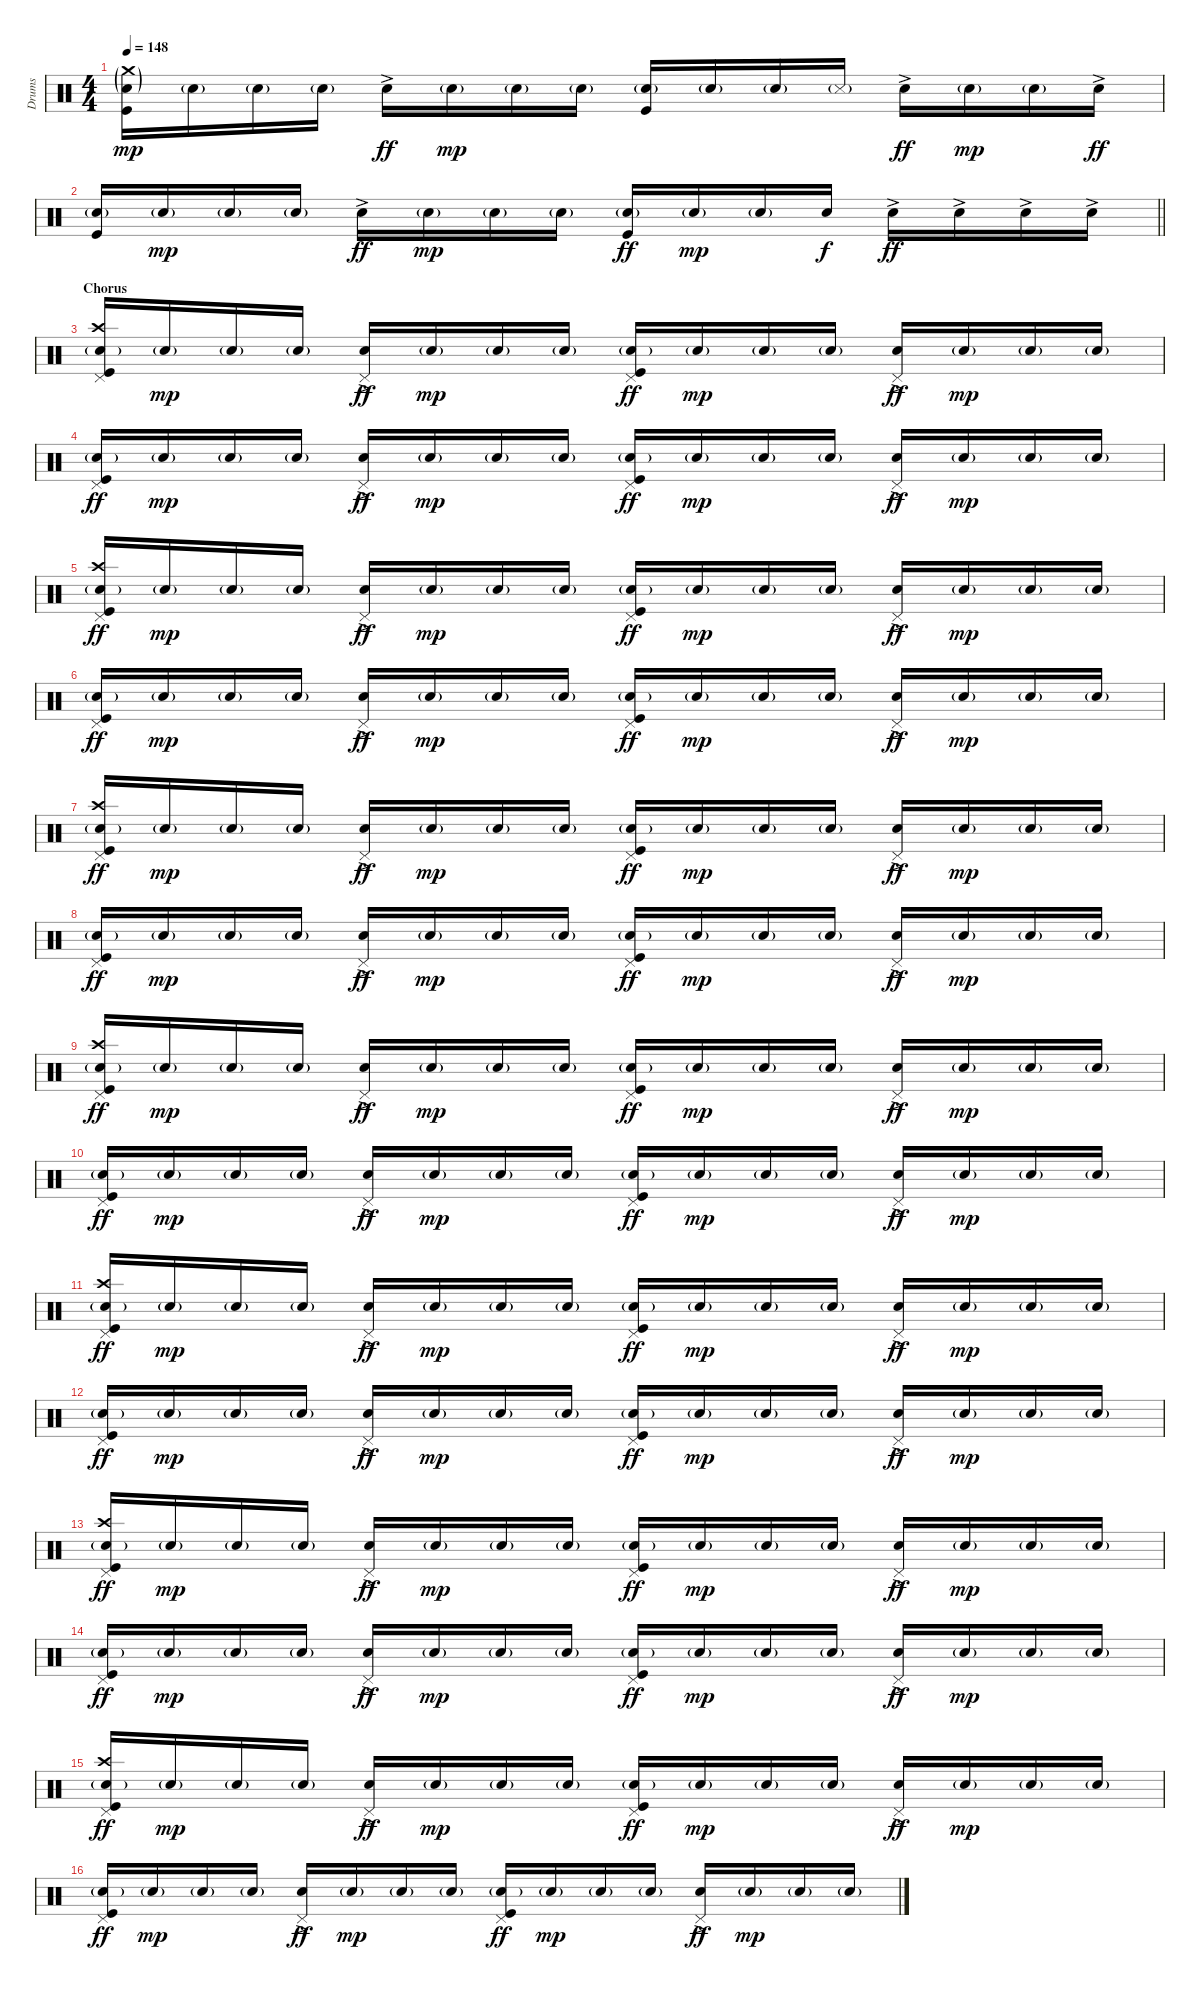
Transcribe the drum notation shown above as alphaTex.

\track ("Drums" "Drums") {instrument percussion}
\staff {score}
\articulation defaults
\ts (4 4)
\tempo 148
\clef neutral
\ks c
("Crash medium (hit)"{g} "Snare (hit) 2"{g} "Kick (hit)").16{dy mp beam Down} "Snare (hit) 2"{g}.16{beam Down} "Snare (hit) 2"{g}.16{beam Down} "Snare (hit) 2"{g}.16{beam Down} "Electric Snare (hit)"{ac}.16{dy ff} "Snare (hit) 2"{g}.16{dy mp} "Snare (hit) 2"{g}.16 "Snare (hit) 2"{g}.16 ("Snare (hit) 2"{g} "Kick (hit)").16 "Snare (hit) 2"{g}.16 "Snare (hit) 2"{g}.16 "Snare (side stick) 3"{g}.16 "Electric Snare (hit)"{ac}.16{dy ff} "Snare (hit) 2"{g}.16{dy mp} "Snare (hit) 2"{g}.16 "Electric Snare (hit)"{ac}.16{dy ff} |
\barLineRight lightlight
("Snare (hit) 2"{g} "Kick (hit)").16 "Snare (hit) 2"{g}.16{dy mp} "Snare (hit) 2"{g}.16 "Snare (hit) 2"{g}.16 "Electric Snare (hit)"{ac}.16{dy ff} "Snare (hit) 2"{g}.16{dy mp} "Snare (hit) 2"{g}.16 "Snare (hit) 2"{g}.16 ("Snare (hit) 2"{g} "Kick (hit)").16{dy ff} "Snare (hit) 2"{g}.16{dy mp} "Snare (hit) 2"{g}.16 "Electric Snare (hit)".16{dy f} "Electric Snare (hit)"{ac}.16{dy ff} "Electric Snare (hit)"{ac}.16 "Electric Snare (hit)"{ac}.16 "Electric Snare (hit)"{ac}.16 |
\section ("" "Chorus")
("Crash high (hit)" "Pedal Hi-Hat (hit)" "Snare (hit) 2"{g} "Kick (hit)").16 "Snare (hit) 2"{g}.16{dy mp} "Snare (hit) 2"{g}.16 "Snare (hit) 2"{g}.16 ("Pedal Hi-Hat (hit)" "Electric Snare (hit)"{ac}).16{dy ff} "Snare (hit) 2"{g}.16{dy mp} "Snare (hit) 2"{g}.16 "Snare (hit) 2"{g}.16 ("Pedal Hi-Hat (hit)" "Snare (hit) 2"{g} "Kick (hit)").16{dy ff} "Snare (hit) 2"{g}.16{dy mp} "Snare (hit) 2"{g}.16 "Snare (hit) 2"{g}.16 ("Pedal Hi-Hat (hit)" "Electric Snare (hit)"{ac}).16{dy ff} "Snare (hit) 2"{g}.16{dy mp} "Snare (hit) 2"{g}.16 "Snare (hit) 2"{g}.16 |
("Pedal Hi-Hat (hit)" "Snare (hit) 2"{g} "Kick (hit)").16{dy ff} "Snare (hit) 2"{g}.16{dy mp} "Snare (hit) 2"{g}.16 "Snare (hit) 2"{g}.16 ("Pedal Hi-Hat (hit)" "Electric Snare (hit)"{ac}).16{dy ff} "Snare (hit) 2"{g}.16{dy mp} "Snare (hit) 2"{g}.16 "Snare (hit) 2"{g}.16 ("Pedal Hi-Hat (hit)" "Snare (hit) 2"{g} "Kick (hit)").16{dy ff} "Snare (hit) 2"{g}.16{dy mp} "Snare (hit) 2"{g}.16 "Snare (hit) 2"{g}.16 ("Pedal Hi-Hat (hit)" "Electric Snare (hit)"{ac}).16{dy ff} "Snare (hit) 2"{g}.16{dy mp} "Snare (hit) 2"{g}.16 "Snare (hit) 2"{g}.16 |
("Crash high (hit)" "Pedal Hi-Hat (hit)" "Snare (hit) 2"{g} "Kick (hit)").16{dy ff} "Snare (hit) 2"{g}.16{dy mp} "Snare (hit) 2"{g}.16 "Snare (hit) 2"{g}.16 ("Pedal Hi-Hat (hit)" "Electric Snare (hit)"{ac}).16{dy ff} "Snare (hit) 2"{g}.16{dy mp} "Snare (hit) 2"{g}.16 "Snare (hit) 2"{g}.16 ("Pedal Hi-Hat (hit)" "Snare (hit) 2"{g} "Kick (hit)").16{dy ff} "Snare (hit) 2"{g}.16{dy mp} "Snare (hit) 2"{g}.16 "Snare (hit) 2"{g}.16 ("Pedal Hi-Hat (hit)" "Electric Snare (hit)"{ac}).16{dy ff} "Snare (hit) 2"{g}.16{dy mp} "Snare (hit) 2"{g}.16 "Snare (hit) 2"{g}.16 |
("Pedal Hi-Hat (hit)" "Snare (hit) 2"{g} "Kick (hit)").16{dy ff} "Snare (hit) 2"{g}.16{dy mp} "Snare (hit) 2"{g}.16 "Snare (hit) 2"{g}.16 ("Pedal Hi-Hat (hit)" "Electric Snare (hit)"{ac}).16{dy ff} "Snare (hit) 2"{g}.16{dy mp} "Snare (hit) 2"{g}.16 "Snare (hit) 2"{g}.16 ("Pedal Hi-Hat (hit)" "Snare (hit) 2"{g} "Kick (hit)").16{dy ff} "Snare (hit) 2"{g}.16{dy mp} "Snare (hit) 2"{g}.16 "Snare (hit) 2"{g}.16 ("Pedal Hi-Hat (hit)" "Electric Snare (hit)"{ac}).16{dy ff} "Snare (hit) 2"{g}.16{dy mp} "Snare (hit) 2"{g}.16 "Snare (hit) 2"{g}.16 |
("Crash high (hit)" "Pedal Hi-Hat (hit)" "Snare (hit) 2"{g} "Kick (hit)").16{dy ff} "Snare (hit) 2"{g}.16{dy mp} "Snare (hit) 2"{g}.16 "Snare (hit) 2"{g}.16 ("Pedal Hi-Hat (hit)" "Electric Snare (hit)"{ac}).16{dy ff} "Snare (hit) 2"{g}.16{dy mp} "Snare (hit) 2"{g}.16 "Snare (hit) 2"{g}.16 ("Pedal Hi-Hat (hit)" "Snare (hit) 2"{g} "Kick (hit)").16{dy ff} "Snare (hit) 2"{g}.16{dy mp} "Snare (hit) 2"{g}.16 "Snare (hit) 2"{g}.16 ("Pedal Hi-Hat (hit)" "Electric Snare (hit)"{ac}).16{dy ff} "Snare (hit) 2"{g}.16{dy mp} "Snare (hit) 2"{g}.16 "Snare (hit) 2"{g}.16 |
("Pedal Hi-Hat (hit)" "Snare (hit) 2"{g} "Kick (hit)").16{dy ff} "Snare (hit) 2"{g}.16{dy mp} "Snare (hit) 2"{g}.16 "Snare (hit) 2"{g}.16 ("Pedal Hi-Hat (hit)" "Electric Snare (hit)"{ac}).16{dy ff} "Snare (hit) 2"{g}.16{dy mp} "Snare (hit) 2"{g}.16 "Snare (hit) 2"{g}.16 ("Pedal Hi-Hat (hit)" "Snare (hit) 2"{g} "Kick (hit)").16{dy ff} "Snare (hit) 2"{g}.16{dy mp} "Snare (hit) 2"{g}.16 "Snare (hit) 2"{g}.16 ("Pedal Hi-Hat (hit)" "Electric Snare (hit)"{ac}).16{dy ff} "Snare (hit) 2"{g}.16{dy mp} "Snare (hit) 2"{g}.16 "Snare (hit) 2"{g}.16 |
("Crash high (hit)" "Pedal Hi-Hat (hit)" "Snare (hit) 2"{g} "Kick (hit)").16{dy ff} "Snare (hit) 2"{g}.16{dy mp} "Snare (hit) 2"{g}.16 "Snare (hit) 2"{g}.16 ("Pedal Hi-Hat (hit)" "Electric Snare (hit)"{ac}).16{dy ff} "Snare (hit) 2"{g}.16{dy mp} "Snare (hit) 2"{g}.16 "Snare (hit) 2"{g}.16 ("Pedal Hi-Hat (hit)" "Snare (hit) 2"{g} "Kick (hit)").16{dy ff} "Snare (hit) 2"{g}.16{dy mp} "Snare (hit) 2"{g}.16 "Snare (hit) 2"{g}.16 ("Pedal Hi-Hat (hit)" "Electric Snare (hit)"{ac}).16{dy ff} "Snare (hit) 2"{g}.16{dy mp} "Snare (hit) 2"{g}.16 "Snare (hit) 2"{g}.16 |
("Pedal Hi-Hat (hit)" "Snare (hit) 2"{g} "Kick (hit)").16{dy ff} "Snare (hit) 2"{g}.16{dy mp} "Snare (hit) 2"{g}.16 "Snare (hit) 2"{g}.16 ("Pedal Hi-Hat (hit)" "Electric Snare (hit)"{ac}).16{dy ff} "Snare (hit) 2"{g}.16{dy mp} "Snare (hit) 2"{g}.16 "Snare (hit) 2"{g}.16 ("Pedal Hi-Hat (hit)" "Snare (hit) 2"{g} "Kick (hit)").16{dy ff} "Snare (hit) 2"{g}.16{dy mp} "Snare (hit) 2"{g}.16 "Snare (hit) 2"{g}.16 ("Pedal Hi-Hat (hit)" "Electric Snare (hit)"{ac}).16{dy ff} "Snare (hit) 2"{g}.16{dy mp} "Snare (hit) 2"{g}.16 "Snare (hit) 2"{g}.16 |
("Crash high (hit)" "Pedal Hi-Hat (hit)" "Snare (hit) 2"{g} "Kick (hit)").16{dy ff} "Snare (hit) 2"{g}.16{dy mp} "Snare (hit) 2"{g}.16 "Snare (hit) 2"{g}.16 ("Pedal Hi-Hat (hit)" "Electric Snare (hit)"{ac}).16{dy ff} "Snare (hit) 2"{g}.16{dy mp} "Snare (hit) 2"{g}.16 "Snare (hit) 2"{g}.16 ("Pedal Hi-Hat (hit)" "Snare (hit) 2"{g} "Kick (hit)").16{dy ff} "Snare (hit) 2"{g}.16{dy mp} "Snare (hit) 2"{g}.16 "Snare (hit) 2"{g}.16 ("Pedal Hi-Hat (hit)" "Electric Snare (hit)"{ac}).16{dy ff} "Snare (hit) 2"{g}.16{dy mp} "Snare (hit) 2"{g}.16 "Snare (hit) 2"{g}.16 |
("Pedal Hi-Hat (hit)" "Snare (hit) 2"{g} "Kick (hit)").16{dy ff} "Snare (hit) 2"{g}.16{dy mp} "Snare (hit) 2"{g}.16 "Snare (hit) 2"{g}.16 ("Pedal Hi-Hat (hit)" "Electric Snare (hit)"{ac}).16{dy ff} "Snare (hit) 2"{g}.16{dy mp} "Snare (hit) 2"{g}.16 "Snare (hit) 2"{g}.16 ("Pedal Hi-Hat (hit)" "Snare (hit) 2"{g} "Kick (hit)").16{dy ff} "Snare (hit) 2"{g}.16{dy mp} "Snare (hit) 2"{g}.16 "Snare (hit) 2"{g}.16 ("Pedal Hi-Hat (hit)" "Electric Snare (hit)"{ac}).16{dy ff} "Snare (hit) 2"{g}.16{dy mp} "Snare (hit) 2"{g}.16 "Snare (hit) 2"{g}.16 |
("Crash high (hit)" "Pedal Hi-Hat (hit)" "Snare (hit) 2"{g} "Kick (hit)").16{dy ff} "Snare (hit) 2"{g}.16{dy mp} "Snare (hit) 2"{g}.16 "Snare (hit) 2"{g}.16 ("Pedal Hi-Hat (hit)" "Electric Snare (hit)"{ac}).16{dy ff} "Snare (hit) 2"{g}.16{dy mp} "Snare (hit) 2"{g}.16 "Snare (hit) 2"{g}.16 ("Pedal Hi-Hat (hit)" "Snare (hit) 2"{g} "Kick (hit)").16{dy ff} "Snare (hit) 2"{g}.16{dy mp} "Snare (hit) 2"{g}.16 "Snare (hit) 2"{g}.16 ("Pedal Hi-Hat (hit)" "Electric Snare (hit)"{ac}).16{dy ff} "Snare (hit) 2"{g}.16{dy mp} "Snare (hit) 2"{g}.16 "Snare (hit) 2"{g}.16 |
("Pedal Hi-Hat (hit)" "Snare (hit) 2"{g} "Kick (hit)").16{dy ff} "Snare (hit) 2"{g}.16{dy mp} "Snare (hit) 2"{g}.16 "Snare (hit) 2"{g}.16 ("Pedal Hi-Hat (hit)" "Electric Snare (hit)"{ac}).16{dy ff} "Snare (hit) 2"{g}.16{dy mp} "Snare (hit) 2"{g}.16 "Snare (hit) 2"{g}.16 ("Pedal Hi-Hat (hit)" "Snare (hit) 2"{g} "Kick (hit)").16{dy ff} "Snare (hit) 2"{g}.16{dy mp} "Snare (hit) 2"{g}.16 "Snare (hit) 2"{g}.16 ("Pedal Hi-Hat (hit)" "Electric Snare (hit)"{ac}).16{dy ff} "Snare (hit) 2"{g}.16{dy mp} "Snare (hit) 2"{g}.16 "Snare (hit) 2"{g}.16 |
("Crash high (hit)" "Pedal Hi-Hat (hit)" "Snare (hit) 2"{g} "Kick (hit)").16{dy ff} "Snare (hit) 2"{g}.16{dy mp} "Snare (hit) 2"{g}.16 "Snare (hit) 2"{g}.16 ("Pedal Hi-Hat (hit)" "Electric Snare (hit)"{ac}).16{dy ff} "Snare (hit) 2"{g}.16{dy mp} "Snare (hit) 2"{g}.16 "Snare (hit) 2"{g}.16 ("Pedal Hi-Hat (hit)" "Snare (hit) 2"{g} "Kick (hit)").16{dy ff} "Snare (hit) 2"{g}.16{dy mp} "Snare (hit) 2"{g}.16 "Snare (hit) 2"{g}.16 ("Pedal Hi-Hat (hit)" "Electric Snare (hit)"{ac}).16{dy ff} "Snare (hit) 2"{g}.16{dy mp} "Snare (hit) 2"{g}.16 "Snare (hit) 2"{g}.16 |
("Pedal Hi-Hat (hit)" "Snare (hit) 2"{g} "Kick (hit)").16{dy ff} "Snare (hit) 2"{g}.16{dy mp} "Snare (hit) 2"{g}.16 "Snare (hit) 2"{g}.16 ("Pedal Hi-Hat (hit)" "Electric Snare (hit)"{ac}).16{dy ff} "Snare (hit) 2"{g}.16{dy mp} "Snare (hit) 2"{g}.16 "Snare (hit) 2"{g}.16 ("Pedal Hi-Hat (hit)" "Snare (hit) 2"{g} "Kick (hit)").16{dy ff} "Snare (hit) 2"{g}.16{dy mp} "Snare (hit) 2"{g}.16 "Snare (hit) 2"{g}.16 ("Pedal Hi-Hat (hit)" "Electric Snare (hit)"{ac}).16{dy ff} "Snare (hit) 2"{g}.16{dy mp} "Snare (hit) 2"{g}.16 "Snare (hit) 2"{g}.16
